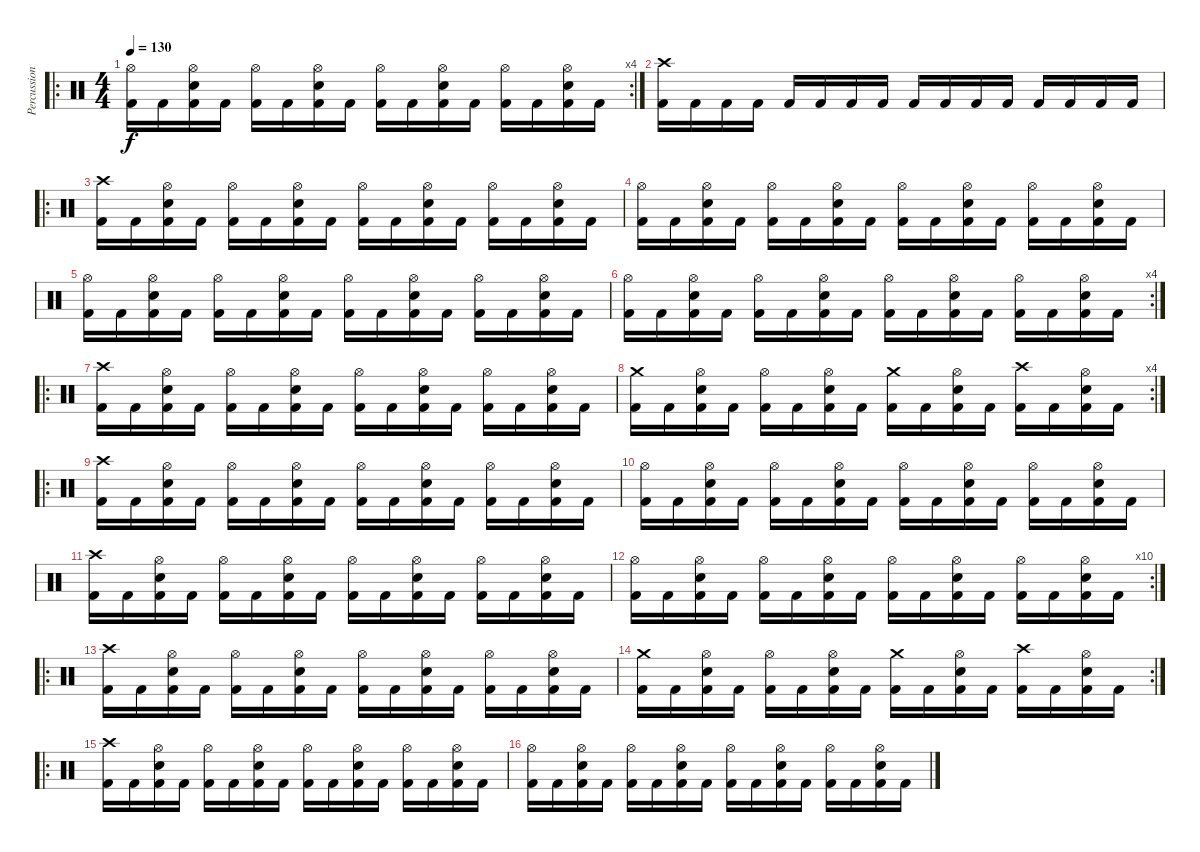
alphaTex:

\track ("Percussions" "Percussion") {instrument percussion}
\staff {score}
\articulation defaults
\ro
\rc 4
\ts (4 4)
\tempo 130
\clef neutral
\ks c
("Hi-Hat (open)" "Kick (hit) 2").16{dy f} "Kick (hit) 2".16 ("Hi-Hat (open)" "Snare (hit) 2" "Kick (hit) 2").16 "Kick (hit) 2".16 ("Hi-Hat (open)" "Kick (hit) 2").16 "Kick (hit) 2".16 ("Hi-Hat (open)" "Snare (hit) 2" "Kick (hit) 2").16 "Kick (hit) 2".16 ("Hi-Hat (open)" "Kick (hit) 2").16 "Kick (hit) 2".16 ("Hi-Hat (open)" "Snare (hit) 2" "Kick (hit) 2").16 "Kick (hit) 2".16 ("Hi-Hat (open)" "Kick (hit) 2").16 "Kick (hit) 2".16 ("Hi-Hat (open)" "Snare (hit) 2" "Kick (hit) 2").16 "Kick (hit) 2".16 |
("Crash high (hit)" "Kick (hit) 2").16 "Kick (hit) 2".16 "Kick (hit) 2".16 "Kick (hit) 2".16 "Kick (hit) 2".16 "Kick (hit) 2".16 "Kick (hit) 2".16 "Kick (hit) 2".16 "Kick (hit) 2".16 "Kick (hit) 2".16 "Kick (hit) 2".16 "Kick (hit) 2".16 "Kick (hit) 2".16 "Kick (hit) 2".16 "Kick (hit) 2".16 "Kick (hit) 2".16 |
\ro
("Crash high (hit)" "Kick (hit) 2").16 "Kick (hit) 2".16 ("Hi-Hat (open)" "Snare (hit) 2" "Kick (hit) 2").16 "Kick (hit) 2".16 ("Hi-Hat (open)" "Kick (hit) 2").16 "Kick (hit) 2".16 ("Hi-Hat (open)" "Snare (hit) 2" "Kick (hit) 2").16 "Kick (hit) 2".16 ("Hi-Hat (open)" "Kick (hit) 2").16 "Kick (hit) 2".16 ("Hi-Hat (open)" "Snare (hit) 2" "Kick (hit) 2").16 "Kick (hit) 2".16 ("Hi-Hat (open)" "Kick (hit) 2").16 "Kick (hit) 2".16 ("Hi-Hat (open)" "Snare (hit) 2" "Kick (hit) 2").16 "Kick (hit) 2".16 |
("Hi-Hat (open)" "Kick (hit) 2").16 "Kick (hit) 2".16 ("Hi-Hat (open)" "Snare (hit) 2" "Kick (hit) 2").16 "Kick (hit) 2".16 ("Hi-Hat (open)" "Kick (hit) 2").16 "Kick (hit) 2".16 ("Hi-Hat (open)" "Snare (hit) 2" "Kick (hit) 2").16 "Kick (hit) 2".16 ("Hi-Hat (open)" "Kick (hit) 2").16 "Kick (hit) 2".16 ("Hi-Hat (open)" "Snare (hit) 2" "Kick (hit) 2").16 "Kick (hit) 2".16 ("Hi-Hat (open)" "Kick (hit) 2").16 "Kick (hit) 2".16 ("Hi-Hat (open)" "Snare (hit) 2" "Kick (hit) 2").16 "Kick (hit) 2".16 |
("Hi-Hat (open)" "Kick (hit) 2").16 "Kick (hit) 2".16 ("Hi-Hat (open)" "Snare (hit) 2" "Kick (hit) 2").16 "Kick (hit) 2".16 ("Hi-Hat (open)" "Kick (hit) 2").16 "Kick (hit) 2".16 ("Hi-Hat (open)" "Snare (hit) 2" "Kick (hit) 2").16 "Kick (hit) 2".16 ("Hi-Hat (open)" "Kick (hit) 2").16 "Kick (hit) 2".16 ("Hi-Hat (open)" "Snare (hit) 2" "Kick (hit) 2").16 "Kick (hit) 2".16 ("Hi-Hat (open)" "Kick (hit) 2").16 "Kick (hit) 2".16 ("Hi-Hat (open)" "Snare (hit) 2" "Kick (hit) 2").16 "Kick (hit) 2".16 |
\rc 4
("Hi-Hat (open)" "Kick (hit) 2").16 "Kick (hit) 2".16 ("Hi-Hat (open)" "Snare (hit) 2" "Kick (hit) 2").16 "Kick (hit) 2".16 ("Hi-Hat (open)" "Kick (hit) 2").16 "Kick (hit) 2".16 ("Hi-Hat (open)" "Snare (hit) 2" "Kick (hit) 2").16 "Kick (hit) 2".16 ("Hi-Hat (open)" "Kick (hit) 2").16 "Kick (hit) 2".16 ("Hi-Hat (open)" "Snare (hit) 2" "Kick (hit) 2").16 "Kick (hit) 2".16 ("Hi-Hat (open)" "Kick (hit) 2").16 "Kick (hit) 2".16 ("Hi-Hat (open)" "Snare (hit) 2" "Kick (hit) 2").16 "Kick (hit) 2".16 |
\ro
("Crash high (hit)" "Kick (hit) 2").16 "Kick (hit) 2".16 ("Hi-Hat (open)" "Snare (hit) 2" "Kick (hit) 2").16 "Kick (hit) 2".16 ("Hi-Hat (open)" "Kick (hit) 2").16 "Kick (hit) 2".16 ("Hi-Hat (open)" "Snare (hit) 2" "Kick (hit) 2").16 "Kick (hit) 2".16 ("Hi-Hat (open)" "Kick (hit) 2").16 "Kick (hit) 2".16 ("Hi-Hat (open)" "Snare (hit) 2" "Kick (hit) 2").16 "Kick (hit) 2".16 ("Hi-Hat (open)" "Kick (hit) 2").16 "Kick (hit) 2".16 ("Hi-Hat (open)" "Snare (hit) 2" "Kick (hit) 2").16 "Kick (hit) 2".16 |
\rc 4
("Crash medium (hit)" "Kick (hit) 2").16 "Kick (hit) 2".16 ("Hi-Hat (open)" "Snare (hit) 2" "Kick (hit) 2").16 "Kick (hit) 2".16 ("Hi-Hat (open)" "Kick (hit) 2").16 "Kick (hit) 2".16 ("Hi-Hat (open)" "Snare (hit) 2" "Kick (hit) 2").16 "Kick (hit) 2".16 ("Crash medium (hit)" "Kick (hit) 2").16 "Kick (hit) 2".16 ("Hi-Hat (open)" "Snare (hit) 2" "Kick (hit) 2").16 "Kick (hit) 2".16 ("Crash high (hit)" "Kick (hit) 2").16 "Kick (hit) 2".16 ("Hi-Hat (open)" "Snare (hit) 2" "Kick (hit) 2").16 "Kick (hit) 2".16 |
\ro
("Crash high (hit)" "Kick (hit) 2").16 "Kick (hit) 2".16 ("Hi-Hat (open)" "Snare (hit) 2" "Kick (hit) 2").16 "Kick (hit) 2".16 ("Hi-Hat (open)" "Kick (hit) 2").16 "Kick (hit) 2".16 ("Hi-Hat (open)" "Snare (hit) 2" "Kick (hit) 2").16 "Kick (hit) 2".16 ("Hi-Hat (open)" "Kick (hit) 2").16 "Kick (hit) 2".16 ("Hi-Hat (open)" "Snare (hit) 2" "Kick (hit) 2").16 "Kick (hit) 2".16 ("Hi-Hat (open)" "Kick (hit) 2").16 "Kick (hit) 2".16 ("Hi-Hat (open)" "Snare (hit) 2" "Kick (hit) 2").16 "Kick (hit) 2".16 |
("Hi-Hat (open)" "Kick (hit) 2").16 "Kick (hit) 2".16 ("Hi-Hat (open)" "Snare (hit) 2" "Kick (hit) 2").16 "Kick (hit) 2".16 ("Hi-Hat (open)" "Kick (hit) 2").16 "Kick (hit) 2".16 ("Hi-Hat (open)" "Snare (hit) 2" "Kick (hit) 2").16 "Kick (hit) 2".16 ("Hi-Hat (open)" "Kick (hit) 2").16 "Kick (hit) 2".16 ("Hi-Hat (open)" "Snare (hit) 2" "Kick (hit) 2").16 "Kick (hit) 2".16 ("Hi-Hat (open)" "Kick (hit) 2").16 "Kick (hit) 2".16 ("Hi-Hat (open)" "Snare (hit) 2" "Kick (hit) 2").16 "Kick (hit) 2".16 |
("Crash high (hit)" "Kick (hit) 2").16 "Kick (hit) 2".16 ("Hi-Hat (open)" "Snare (hit) 2" "Kick (hit) 2").16 "Kick (hit) 2".16 ("Hi-Hat (open)" "Kick (hit) 2").16 "Kick (hit) 2".16 ("Hi-Hat (open)" "Snare (hit) 2" "Kick (hit) 2").16 "Kick (hit) 2".16 ("Hi-Hat (open)" "Kick (hit) 2").16 "Kick (hit) 2".16 ("Hi-Hat (open)" "Snare (hit) 2" "Kick (hit) 2").16 "Kick (hit) 2".16 ("Hi-Hat (open)" "Kick (hit) 2").16 "Kick (hit) 2".16 ("Hi-Hat (open)" "Snare (hit) 2" "Kick (hit) 2").16 "Kick (hit) 2".16 |
\rc 10
("Hi-Hat (open)" "Kick (hit) 2").16 "Kick (hit) 2".16 ("Hi-Hat (open)" "Snare (hit) 2" "Kick (hit) 2").16 "Kick (hit) 2".16 ("Hi-Hat (open)" "Kick (hit) 2").16 "Kick (hit) 2".16 ("Hi-Hat (open)" "Snare (hit) 2" "Kick (hit) 2").16 "Kick (hit) 2".16 ("Hi-Hat (open)" "Kick (hit) 2").16 "Kick (hit) 2".16 ("Hi-Hat (open)" "Snare (hit) 2" "Kick (hit) 2").16 "Kick (hit) 2".16 ("Hi-Hat (open)" "Kick (hit) 2").16 "Kick (hit) 2".16 ("Hi-Hat (open)" "Snare (hit) 2" "Kick (hit) 2").16 "Kick (hit) 2".16 |
\ro
("Crash high (hit)" "Kick (hit) 2").16 "Kick (hit) 2".16 ("Hi-Hat (open)" "Snare (hit) 2" "Kick (hit) 2").16 "Kick (hit) 2".16 ("Hi-Hat (open)" "Kick (hit) 2").16 "Kick (hit) 2".16 ("Hi-Hat (open)" "Snare (hit) 2" "Kick (hit) 2").16 "Kick (hit) 2".16 ("Hi-Hat (open)" "Kick (hit) 2").16 "Kick (hit) 2".16 ("Hi-Hat (open)" "Snare (hit) 2" "Kick (hit) 2").16 "Kick (hit) 2".16 ("Hi-Hat (open)" "Kick (hit) 2").16 "Kick (hit) 2".16 ("Hi-Hat (open)" "Snare (hit) 2" "Kick (hit) 2").16 "Kick (hit) 2".16 |
\rc 2
("Crash medium (hit)" "Kick (hit) 2").16 "Kick (hit) 2".16 ("Hi-Hat (open)" "Snare (hit) 2" "Kick (hit) 2").16 "Kick (hit) 2".16 ("Hi-Hat (open)" "Kick (hit) 2").16 "Kick (hit) 2".16 ("Hi-Hat (open)" "Snare (hit) 2" "Kick (hit) 2").16 "Kick (hit) 2".16 ("Crash medium (hit)" "Kick (hit) 2").16 "Kick (hit) 2".16 ("Hi-Hat (open)" "Snare (hit) 2" "Kick (hit) 2").16 "Kick (hit) 2".16 ("Crash high (hit)" "Kick (hit) 2").16 "Kick (hit) 2".16 ("Hi-Hat (open)" "Snare (hit) 2" "Kick (hit) 2").16 "Kick (hit) 2".16 |
\ro
("Crash high (hit)" "Kick (hit) 2").16 "Kick (hit) 2".16 ("Hi-Hat (open)" "Snare (hit) 2" "Kick (hit) 2").16 "Kick (hit) 2".16 ("Hi-Hat (open)" "Kick (hit) 2").16 "Kick (hit) 2".16 ("Hi-Hat (open)" "Snare (hit) 2" "Kick (hit) 2").16 "Kick (hit) 2".16 ("Hi-Hat (open)" "Kick (hit) 2").16 "Kick (hit) 2".16 ("Hi-Hat (open)" "Snare (hit) 2" "Kick (hit) 2").16 "Kick (hit) 2".16 ("Hi-Hat (open)" "Kick (hit) 2").16 "Kick (hit) 2".16 ("Hi-Hat (open)" "Snare (hit) 2" "Kick (hit) 2").16 "Kick (hit) 2".16 |
("Hi-Hat (open)" "Kick (hit) 2").16 "Kick (hit) 2".16 ("Hi-Hat (open)" "Snare (hit) 2" "Kick (hit) 2").16 "Kick (hit) 2".16 ("Hi-Hat (open)" "Kick (hit) 2").16 "Kick (hit) 2".16 ("Hi-Hat (open)" "Snare (hit) 2" "Kick (hit) 2").16 "Kick (hit) 2".16 ("Hi-Hat (open)" "Kick (hit) 2").16 "Kick (hit) 2".16 ("Hi-Hat (open)" "Snare (hit) 2" "Kick (hit) 2").16 "Kick (hit) 2".16 ("Hi-Hat (open)" "Kick (hit) 2").16 "Kick (hit) 2".16 ("Hi-Hat (open)" "Snare (hit) 2" "Kick (hit) 2").16 "Kick (hit) 2".16
